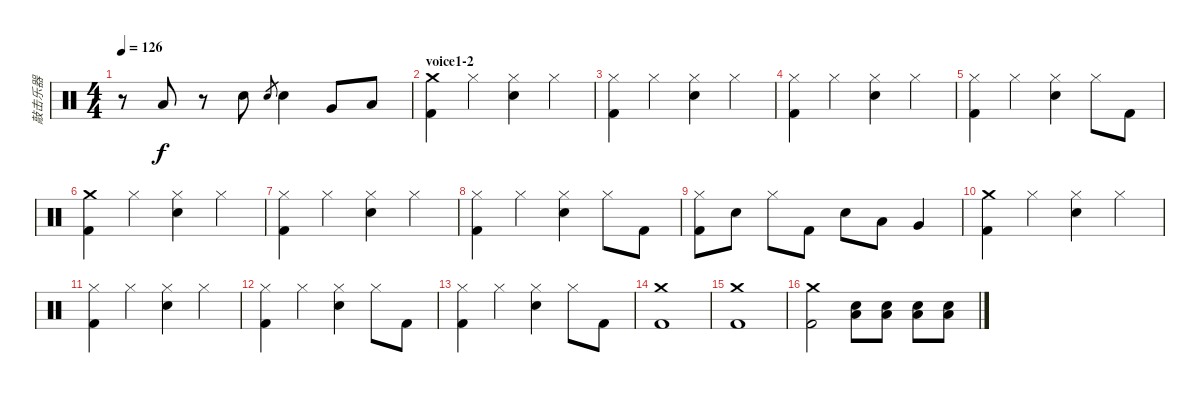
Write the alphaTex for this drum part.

\track ("敲击乐器" "敲击乐器") {instrument percussion}
\staff {score}
\articulation defaults
\ts (4 4)
\tempo 126
\clef neutral
\ks c
r.8{dy f} "Low Tom (hit)".8 r.8 "Electric Snare (hit)".8 "Electric Snare (hit)".8{gr} "Electric Snare (hit)".4 "Very Low Tom (hit)".8 "Low Floor Tom (hit)".8 |
\section ("" "voice1-2")
("Crash medium (hit)" "Kick (hit) 2").4 "Hi-Hat (closed)".4 ("Hi-Hat (closed)" "Electric Snare (hit)").4 "Hi-Hat (closed)".4 |
("Hi-Hat (closed)" "Kick (hit) 2").4 "Hi-Hat (closed)".4 ("Hi-Hat (closed)" "Electric Snare (hit)").4 "Hi-Hat (closed)".4 |
("Hi-Hat (closed)" "Kick (hit) 2").4 "Hi-Hat (closed)".4 ("Hi-Hat (closed)" "Electric Snare (hit)").4 "Hi-Hat (closed)".4 |
("Hi-Hat (closed)" "Kick (hit) 2").4 "Hi-Hat (closed)".4 ("Hi-Hat (closed)" "Electric Snare (hit)").4 "Hi-Hat (closed)".8 "Kick (hit) 2".8 |
("Crash medium (hit)" "Kick (hit) 2").4 "Hi-Hat (closed)".4 ("Hi-Hat (closed)" "Electric Snare (hit)").4 "Hi-Hat (closed)".4 |
("Hi-Hat (closed)" "Kick (hit) 2").4 "Hi-Hat (closed)".4 ("Hi-Hat (closed)" "Electric Snare (hit)").4 "Hi-Hat (closed)".4 |
("Hi-Hat (closed)" "Kick (hit) 2").4 "Hi-Hat (closed)".4 ("Hi-Hat (closed)" "Electric Snare (hit)").4 "Hi-Hat (closed)".8 "Kick (hit) 2".8 |
("Hi-Hat (closed)" "Kick (hit) 2").8 "Electric Snare (hit)".8 "Hi-Hat (closed)".8 "Kick (hit) 2".8 "Electric Snare (hit)".8 "Low Tom (hit)".8 "Very Low Tom (hit)".4 |
("Crash medium (hit)" "Kick (hit) 2").4 "Hi-Hat (closed)".4 ("Hi-Hat (closed)" "Electric Snare (hit)").4 "Hi-Hat (closed)".4 |
("Hi-Hat (closed)" "Kick (hit) 2").4 "Hi-Hat (closed)".4 ("Hi-Hat (closed)" "Electric Snare (hit)").4 "Hi-Hat (closed)".4 |
("Hi-Hat (closed)" "Kick (hit) 2").4 "Hi-Hat (closed)".4 ("Hi-Hat (closed)" "Electric Snare (hit)").4 "Hi-Hat (closed)".8 "Kick (hit) 2".8 |
("Hi-Hat (closed)" "Kick (hit) 2").4 "Hi-Hat (closed)".4 ("Hi-Hat (closed)" "Electric Snare (hit)").4 "Hi-Hat (closed)".8 "Kick (hit) 2".8 |
("Crash medium (hit)" "Kick (hit) 2").1 |
("Crash medium (hit)" "Kick (hit) 2").1 |
("Crash medium (hit)" "Kick (hit) 2").2 ("Electric Snare (hit)" "Low Floor Tom (hit)").8{volume 2} ("Electric Snare (hit)" "Low Floor Tom (hit)").8{volume 3} ("Electric Snare (hit)" "Low Floor Tom (hit)").8{volume 4} ("Electric Snare (hit)" "Low Floor Tom (hit)").8{volume 7}
